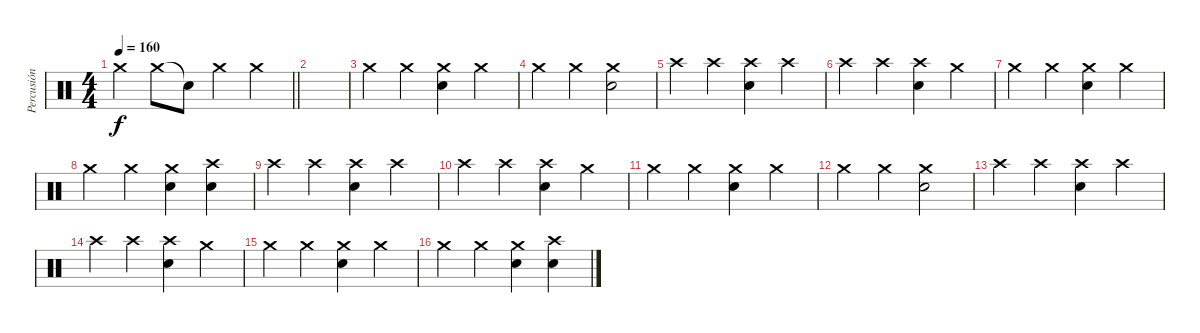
\track ("Percusión" "Percusión") {instrument percussion}
\staff {score}
\articulation defaults
\ts (4 4)
\tempo 160
\clef neutral
\barLineRight lightlight
\ks c "Crash medium (hit)".4{dy f} "Crash medium (hit)".8 "Snare (hit)"{t}.8 "Crash medium (hit)".4 "Crash medium (hit)".4
|
|
"Crash medium (hit)".4 "Crash medium (hit)".4 ("Crash medium (hit)" "Electric Snare (hit)").4 "Crash medium (hit)".4 |
"Crash medium (hit)".4 "Crash medium (hit)".4 ("Crash medium (hit)" "Electric Snare (hit)").2 |
"Crash high (hit)".4 "Crash high (hit)".4 ("Crash high (hit)" "Electric Snare (hit)").4 "Crash high (hit)".4 |
"Crash high (hit)".4 "Crash high (hit)".4 ("Electric Snare (hit)" "Crash high (hit)").4 "Crash medium (hit)".4 |
"Crash medium (hit)".4 "Crash medium (hit)".4 ("Crash medium (hit)" "Electric Snare (hit)").4 "Crash medium (hit)".4 |
"Crash medium (hit)".4 "Crash medium (hit)".4 ("Crash medium (hit)" "Electric Snare (hit)").4 ("Crash high (hit)" "Electric Snare (hit)").4 |
"Crash high (hit)".4 "Crash high (hit)".4 ("Crash high (hit)" "Electric Snare (hit)").4 "Crash high (hit)".4 |
"Crash high (hit)".4 "Crash high (hit)".4 ("Electric Snare (hit)" "Crash high (hit)").4 "Crash medium (hit)".4 |
"Crash medium (hit)".4 "Crash medium (hit)".4 ("Crash medium (hit)" "Electric Snare (hit)").4 "Crash medium (hit)".4 |
"Crash medium (hit)".4 "Crash medium (hit)".4 ("Crash medium (hit)" "Electric Snare (hit)").2 |
"Crash high (hit)".4 "Crash high (hit)".4 ("Crash high (hit)" "Electric Snare (hit)").4 "Crash high (hit)".4 |
"Crash high (hit)".4 "Crash high (hit)".4 ("Electric Snare (hit)" "Crash high (hit)").4 "Crash medium (hit)".4 |
"Crash medium (hit)".4 "Crash medium (hit)".4 ("Crash medium (hit)" "Electric Snare (hit)").4 "Crash medium (hit)".4 |
"Crash medium (hit)".4 "Crash medium (hit)".4 ("Crash medium (hit)" "Electric Snare (hit)").4 ("Crash high (hit)" "Electric Snare (hit)").4
